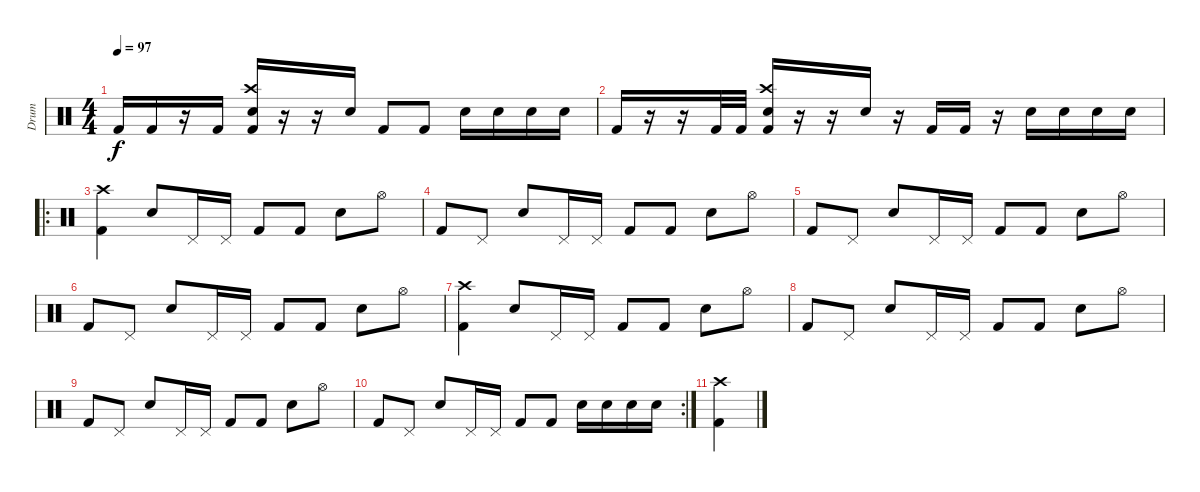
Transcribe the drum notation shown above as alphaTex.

\track ("Drum" "Drum") {instrument percussion}
\staff {score}
\articulation defaults
\ts (4 4)
\tempo 97
\clef neutral
\ks c "Kick (hit) 2".16{dy f} "Kick (hit) 2".16
r.16 "Kick (hit) 2".16 ("Crash high (hit)" "Electric Snare (hit)" "Kick (hit) 2").16 r.16 r.16 "Electric Snare (hit)".16 "Kick (hit) 2".8 "Kick (hit) 2".8 "Electric Snare (hit)".16 "Electric Snare (hit)".16 "Electric Snare (hit)".16 "Electric Snare (hit)".16 |
"Kick (hit) 2".16 r.16 r.16 "Kick (hit) 2".32 "Kick (hit) 2".32 ("Crash high (hit)" "Electric Snare (hit)" "Kick (hit) 2").16 r.16 r.16 "Electric Snare (hit)".16 r.16 "Kick (hit) 2".16 "Kick (hit) 2".16 r.16 "Electric Snare (hit)".16 "Electric Snare (hit)".16 "Electric Snare (hit)".16 "Electric Snare (hit)".16 |
\ro
("Crash high (hit)" "Kick (hit) 2").4 "Electric Snare (hit)".8 "Pedal Hi-Hat (hit)".16 "Pedal Hi-Hat (hit)".16 "Kick (hit) 2".8 "Kick (hit) 2".8 "Electric Snare (hit)".8 "Hi-Hat (open)".8 |
"Kick (hit) 2".8 "Pedal Hi-Hat (hit)".8 "Electric Snare (hit)".8 "Pedal Hi-Hat (hit)".16 "Pedal Hi-Hat (hit)".16 "Kick (hit) 2".8 "Kick (hit) 2".8 "Electric Snare (hit)".8 "Hi-Hat (open)".8 |
"Kick (hit) 2".8 "Pedal Hi-Hat (hit)".8 "Electric Snare (hit)".8 "Pedal Hi-Hat (hit)".16 "Pedal Hi-Hat (hit)".16 "Kick (hit) 2".8 "Kick (hit) 2".8 "Electric Snare (hit)".8 "Hi-Hat (open)".8 |
"Kick (hit) 2".8 "Pedal Hi-Hat (hit)".8 "Electric Snare (hit)".8 "Pedal Hi-Hat (hit)".16 "Pedal Hi-Hat (hit)".16 "Kick (hit) 2".8 "Kick (hit) 2".8 "Electric Snare (hit)".8 "Hi-Hat (open)".8 |
("Crash high (hit)" "Kick (hit) 2").4 "Electric Snare (hit)".8 "Pedal Hi-Hat (hit)".16 "Pedal Hi-Hat (hit)".16 "Kick (hit) 2".8 "Kick (hit) 2".8 "Electric Snare (hit)".8 "Hi-Hat (open)".8 |
"Kick (hit) 2".8 "Pedal Hi-Hat (hit)".8 "Electric Snare (hit)".8 "Pedal Hi-Hat (hit)".16 "Pedal Hi-Hat (hit)".16 "Kick (hit) 2".8 "Kick (hit) 2".8 "Electric Snare (hit)".8 "Hi-Hat (open)".8 |
"Kick (hit) 2".8 "Pedal Hi-Hat (hit)".8 "Electric Snare (hit)".8 "Pedal Hi-Hat (hit)".16 "Pedal Hi-Hat (hit)".16 "Kick (hit) 2".8 "Kick (hit) 2".8 "Electric Snare (hit)".8 "Hi-Hat (open)".8 |
\rc 2 "Kick (hit) 2".8 "Pedal Hi-Hat (hit)".8 "Electric Snare (hit)".8 "Pedal Hi-Hat (hit)".16 "Pedal Hi-Hat (hit)".16 "Kick (hit) 2".8 "Kick (hit) 2".8 "Electric Snare (hit)".16 "Electric Snare (hit)".16 "Electric Snare (hit)".16 "Electric Snare (hit)".16
|
("Crash high (hit)" "Kick (hit) 2").4
